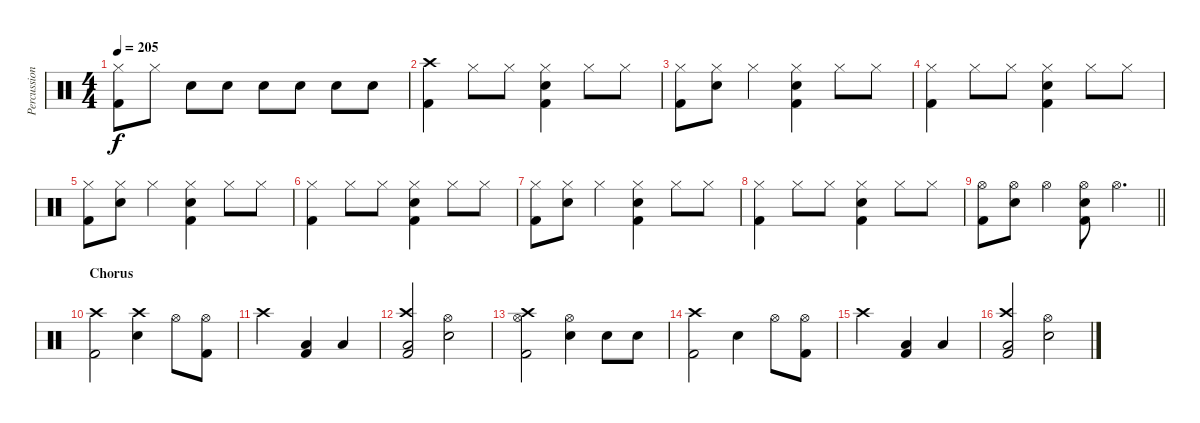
\track ("Percussion" "Percussion") {instrument percussion}
\staff {score}
\articulation defaults
\ts (4 4)
\tempo 205
\clef neutral
\ks c
("Hi-Hat (closed)" "Kick (hit) 2").8{dy f} "Hi-Hat (closed)".8 "Electric Snare (hit)".8 "Electric Snare (hit)".8 "Electric Snare (hit)".8 "Electric Snare (hit)".8 "Electric Snare (hit)".8 "Electric Snare (hit)".8 |
("Crash high (hit)" "Kick (hit) 2").4 "Hi-Hat (closed)".8 "Hi-Hat (closed)".8 ("Electric Snare (hit)" "Hi-Hat (closed)" "Kick (hit) 2").4 "Hi-Hat (closed)".8 "Hi-Hat (closed)".8 |
("Hi-Hat (closed)" "Kick (hit) 2").8 ("Electric Snare (hit)" "Hi-Hat (closed)").8 "Hi-Hat (closed)".4 ("Electric Snare (hit)" "Hi-Hat (closed)" "Kick (hit) 2").4 "Hi-Hat (closed)".8 "Hi-Hat (closed)".8 |
("Hi-Hat (closed)" "Kick (hit) 2").4 "Hi-Hat (closed)".8 "Hi-Hat (closed)".8 ("Electric Snare (hit)" "Hi-Hat (closed)" "Kick (hit) 2").4 "Hi-Hat (closed)".8 "Hi-Hat (closed)".8 |
("Hi-Hat (closed)" "Kick (hit) 2").8 ("Electric Snare (hit)" "Hi-Hat (closed)").8 "Hi-Hat (closed)".4 ("Electric Snare (hit)" "Hi-Hat (closed)" "Kick (hit) 2").4 "Hi-Hat (closed)".8 "Hi-Hat (closed)".8 |
("Hi-Hat (closed)" "Kick (hit) 2").4 "Hi-Hat (closed)".8 "Hi-Hat (closed)".8 ("Electric Snare (hit)" "Hi-Hat (closed)" "Kick (hit) 2").4 "Hi-Hat (closed)".8 "Hi-Hat (closed)".8 |
("Hi-Hat (closed)" "Kick (hit) 2").8 ("Electric Snare (hit)" "Hi-Hat (closed)").8 "Hi-Hat (closed)".4 ("Electric Snare (hit)" "Hi-Hat (closed)" "Kick (hit) 2").4 "Hi-Hat (closed)".8 "Hi-Hat (closed)".8 |
("Hi-Hat (closed)" "Kick (hit) 2").4 "Hi-Hat (closed)".8 "Hi-Hat (closed)".8 ("Electric Snare (hit)" "Hi-Hat (closed)" "Kick (hit) 2").4 "Hi-Hat (closed)".8 "Hi-Hat (closed)".8 |
\barLineRight lightlight
("Hi-Hat (open)" "Kick (hit) 2").8 ("Electric Snare (hit)" "Hi-Hat (open)").8 "Hi-Hat (open)".4 ("Electric Snare (hit)" "Hi-Hat (open)" "Kick (hit) 2").8 "Hi-Hat (open)".4{d} |
\section ("" "Chorus")
("Crash high (hit)" "Kick (hit) 2").2 ("Crash high (hit)" "Electric Snare (hit)").4 "Hi-Hat (open)".8 ("Hi-Hat (open)" "Kick (hit) 2").8 |
"Crash high (hit)".2 ("Low Floor Tom (hit)" "Kick (hit) 2").4 "Low Floor Tom (hit)".4 |
("Crash high (hit)" "Low Floor Tom (hit)" "Kick (hit) 2").2 ("Electric Snare (hit)" "Hi-Hat (open)").2 |
("Crash high (hit)" "Hi-Hat (open)" "Kick (hit) 2").2 ("Electric Snare (hit)" "Hi-Hat (open)").4 "Electric Snare (hit)".8 "Electric Snare (hit)".8 |
("Crash high (hit)" "Kick (hit) 2").2 "Electric Snare (hit)".4 "Hi-Hat (open)".8 ("Hi-Hat (open)" "Kick (hit) 2").8 |
"Crash high (hit)".2 ("Low Floor Tom (hit)" "Kick (hit) 2").4 "Low Floor Tom (hit)".4 |
("Crash high (hit)" "Low Floor Tom (hit)" "Kick (hit) 2").2 ("Electric Snare (hit)" "Hi-Hat (open)").2
